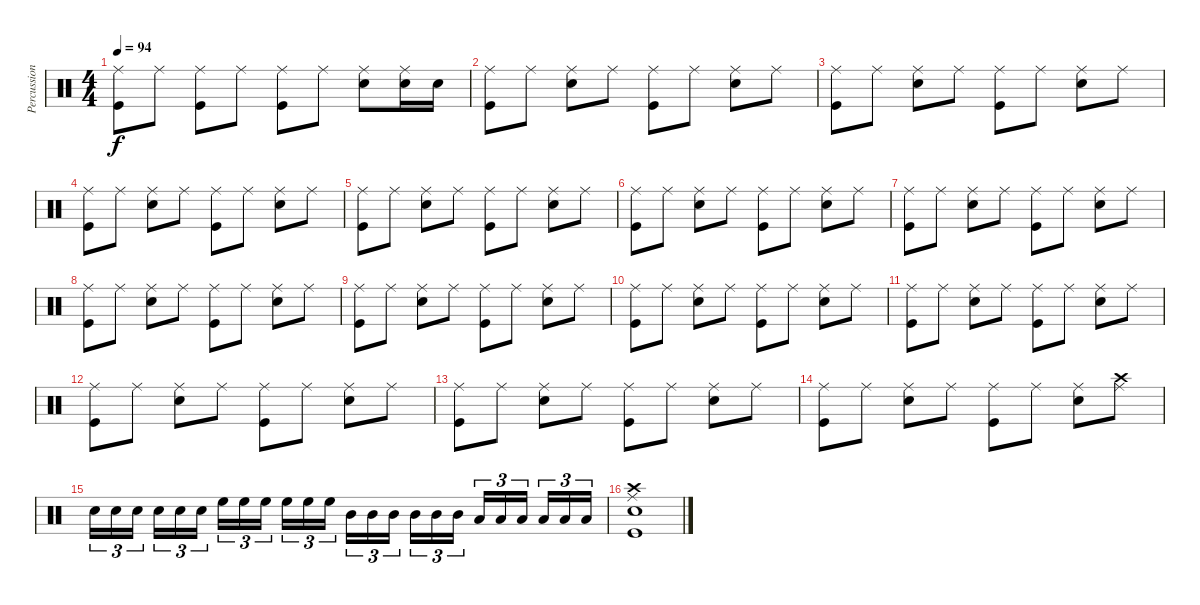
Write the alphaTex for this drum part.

\track ("Percussions" "Percussion") {instrument percussion}
\staff {score}
\articulation defaults
\ts (4 4)
\tempo 94
\clef neutral
\ks c
("Ride (middle)" "Kick (hit)").8{dy f} "Ride (middle)".8 ("Ride (middle)" "Kick (hit)").8 "Ride (middle)".8 ("Ride (middle)" "Kick (hit)").8 "Ride (middle)".8 ("Ride (middle)" "Snare (hit) 2").8 ("Ride (middle)" "Snare (hit) 2").16 "Snare (hit) 2".16 |
("Ride (middle)" "Kick (hit)").8 "Ride (middle)".8 ("Ride (middle)" "Snare (hit) 2").8 "Ride (middle)".8 ("Ride (middle)" "Kick (hit)").8 "Ride (middle)".8 ("Ride (middle)" "Snare (hit) 2").8 "Ride (middle)".8 |
("Ride (middle)" "Kick (hit)").8 "Ride (middle)".8 ("Ride (middle)" "Snare (hit) 2").8 "Ride (middle)".8 ("Ride (middle)" "Kick (hit)").8 "Ride (middle)".8 ("Ride (middle)" "Snare (hit) 2").8 "Ride (middle)".8 |
("Ride (middle)" "Kick (hit)").8 "Ride (middle)".8 ("Ride (middle)" "Snare (hit) 2").8 "Ride (middle)".8 ("Ride (middle)" "Kick (hit)").8 "Ride (middle)".8 ("Ride (middle)" "Snare (hit) 2").8 "Ride (middle)".8 |
("Ride (middle)" "Kick (hit)").8 "Ride (middle)".8 ("Ride (middle)" "Snare (hit) 2").8 "Ride (middle)".8 ("Ride (middle)" "Kick (hit)").8 "Ride (middle)".8 ("Ride (middle)" "Snare (hit) 2").8 "Ride (middle)".8 |
("Ride (middle)" "Kick (hit)").8 "Ride (middle)".8 ("Ride (middle)" "Snare (hit) 2").8 "Ride (middle)".8 ("Ride (middle)" "Kick (hit)").8 "Ride (middle)".8 ("Ride (middle)" "Snare (hit) 2").8 "Ride (middle)".8 |
("Ride (middle)" "Kick (hit)").8 "Ride (middle)".8 ("Ride (middle)" "Snare (hit) 2").8 "Ride (middle)".8 ("Ride (middle)" "Kick (hit)").8 "Ride (middle)".8 ("Ride (middle)" "Snare (hit) 2").8 "Ride (middle)".8 |
("Ride (middle)" "Kick (hit)").8 "Ride (middle)".8 ("Ride (middle)" "Snare (hit) 2").8 "Ride (middle)".8 ("Ride (middle)" "Kick (hit)").8 "Ride (middle)".8 ("Ride (middle)" "Snare (hit) 2").8 "Ride (middle)".8 |
("Ride (middle)" "Kick (hit)").8 "Ride (middle)".8 ("Ride (middle)" "Snare (hit) 2").8 "Ride (middle)".8 ("Ride (middle)" "Kick (hit)").8 "Ride (middle)".8 ("Ride (middle)" "Snare (hit) 2").8 "Ride (middle)".8 |
("Ride (middle)" "Kick (hit)").8 "Ride (middle)".8 ("Ride (middle)" "Snare (hit) 2").8 "Ride (middle)".8 ("Ride (middle)" "Kick (hit)").8 "Ride (middle)".8 ("Ride (middle)" "Snare (hit) 2").8 "Ride (middle)".8 |
("Ride (middle)" "Kick (hit)").8 "Ride (middle)".8 ("Ride (middle)" "Snare (hit) 2").8 "Ride (middle)".8 ("Ride (middle)" "Kick (hit)").8 "Ride (middle)".8 ("Ride (middle)" "Snare (hit) 2").8 "Ride (middle)".8 |
("Ride (middle)" "Kick (hit)").8 "Ride (middle)".8 ("Ride (middle)" "Snare (hit) 2").8 "Ride (middle)".8 ("Ride (middle)" "Kick (hit)").8 "Ride (middle)".8 ("Ride (middle)" "Snare (hit) 2").8 "Ride (middle)".8 |
("Ride (middle)" "Kick (hit)").8 "Ride (middle)".8 ("Ride (middle)" "Snare (hit) 2").8 "Ride (middle)".8 ("Ride (middle)" "Kick (hit)").8 "Ride (middle)".8 ("Ride (middle)" "Snare (hit) 2").8 "Ride (middle)".8 |
("Ride (middle)" "Kick (hit)").8 "Ride (middle)".8 ("Ride (middle)" "Snare (hit) 2").8 "Ride (middle)".8 ("Ride (middle)" "Kick (hit)").8 "Ride (middle)".8 ("Ride (middle)" "Snare (hit) 2").8 ("Ride (middle)" "Crash high (hit)").8 |
"Snare (hit) 2".16{tu (3 2)} "Snare (hit) 2".16{tu (3 2)} "Snare (hit) 2".16{tu (3 2)} "Snare (hit) 2".16{tu (3 2)} "Snare (hit) 2".16{tu (3 2)} "Snare (hit) 2".16{tu (3 2)} "High Floor Tom (hit)".16{tu (3 2)} "High Floor Tom (hit)".16{tu (3 2)} "High Floor Tom (hit)".16{tu (3 2)} "High Floor Tom (hit)".16{tu (3 2)} "High Floor Tom (hit)".16{tu (3 2)} "High Floor Tom (hit)".16{tu (3 2)} "Mid Tom (hit)".16{tu (3 2)} "Mid Tom (hit)".16{tu (3 2)} "Mid Tom (hit)".16{tu (3 2)} "Mid Tom (hit)".16{tu (3 2)} "Mid Tom (hit)".16{tu (3 2)} "Mid Tom (hit)".16{tu (3 2)} "Low Tom (hit)".16{tu (3 2)} "Low Tom (hit)".16{tu (3 2)} "Low Tom (hit)".16{tu (3 2)} "Low Tom (hit)".16{tu (3 2)} "Low Tom (hit)".16{tu (3 2)} "Low Tom (hit)".16{tu (3 2)} |
("Ride (middle)" "Crash high (hit)" "Snare (hit) 2" "Kick (hit)").1
